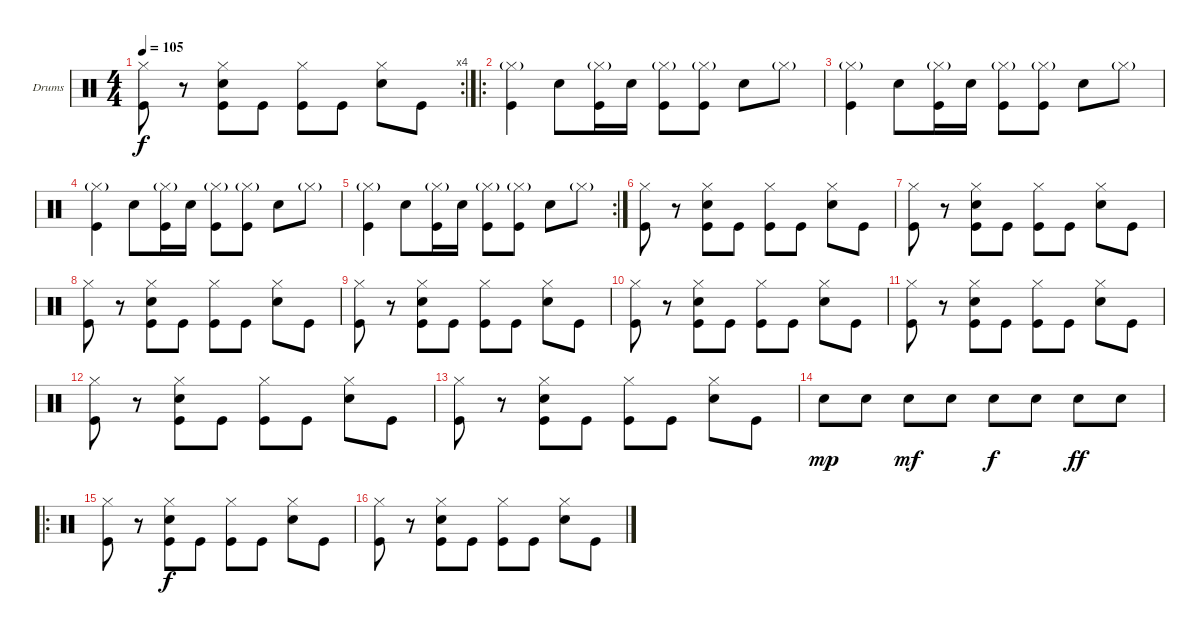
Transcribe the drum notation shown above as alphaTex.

\defaultSystemsLayout 4
\bracketExtendMode groupsimilarinstruments
\firstSystemTrackNameOrientation horizontal
\otherSystemsTrackNameOrientation horizontal
\track ("Ily" "Drums") {instrument percussion}
\staff {score}
\articulation defaults
\rc 4
\ts (4 4)
\tempo 105
\clef neutral
\ks c
("Hi-Hat (closed)" "Kick (hit)").8{dy f} r.8 ("Hi-Hat (closed)" "Kick (hit)" "Snare (hit) 2").8 "Kick (hit)".8 ("Hi-Hat (closed)" "Kick (hit)").8 "Kick (hit)".8 ("Hi-Hat (closed)" "Snare (hit) 2").8 "Kick (hit)".8 |
\ro
("Hi-Hat (closed)"{g} "Kick (hit)").4 "Snare (hit) 2".8 ("Hi-Hat (closed)"{g} "Kick (hit)").16 "Snare (hit) 2".16 ("Hi-Hat (closed)"{g} "Kick (hit)").8 ("Hi-Hat (closed)"{g} "Kick (hit)").8 "Snare (hit) 2".8 "Hi-Hat (closed)"{g}.8 |
("Hi-Hat (closed)"{g} "Kick (hit)").4 "Snare (hit) 2".8 ("Hi-Hat (closed)"{g} "Kick (hit)").16 "Snare (hit) 2".16 ("Hi-Hat (closed)"{g} "Kick (hit)").8 ("Hi-Hat (closed)"{g} "Kick (hit)").8 "Snare (hit) 2".8 "Hi-Hat (closed)"{g}.8 |
("Hi-Hat (closed)"{g} "Kick (hit)").4 "Snare (hit) 2".8 ("Hi-Hat (closed)"{g} "Kick (hit)").16 "Snare (hit) 2".16 ("Hi-Hat (closed)"{g} "Kick (hit)").8 ("Hi-Hat (closed)"{g} "Kick (hit)").8 "Snare (hit) 2".8 "Hi-Hat (closed)"{g}.8 |
\rc 2
("Hi-Hat (closed)"{g} "Kick (hit)").4 "Snare (hit) 2".8 ("Hi-Hat (closed)"{g} "Kick (hit)").16 "Snare (hit) 2".16 ("Hi-Hat (closed)"{g} "Kick (hit)").8 ("Hi-Hat (closed)"{g} "Kick (hit)").8 "Snare (hit) 2".8 "Hi-Hat (closed)"{g}.8 |
("Hi-Hat (closed)" "Kick (hit)").8 r.8 ("Hi-Hat (closed)" "Kick (hit)" "Snare (hit) 2").8 "Kick (hit)".8 ("Hi-Hat (closed)" "Kick (hit)").8 "Kick (hit)".8 ("Hi-Hat (closed)" "Snare (hit) 2").8 "Kick (hit)".8 |
("Hi-Hat (closed)" "Kick (hit)").8 r.8 ("Hi-Hat (closed)" "Kick (hit)" "Snare (hit) 2").8 "Kick (hit)".8 ("Hi-Hat (closed)" "Kick (hit)").8 "Kick (hit)".8 ("Hi-Hat (closed)" "Snare (hit) 2").8 "Kick (hit)".8 |
("Hi-Hat (closed)" "Kick (hit)").8 r.8 ("Hi-Hat (closed)" "Kick (hit)" "Snare (hit) 2").8 "Kick (hit)".8 ("Hi-Hat (closed)" "Kick (hit)").8 "Kick (hit)".8 ("Hi-Hat (closed)" "Snare (hit) 2").8 "Kick (hit)".8 |
("Hi-Hat (closed)" "Kick (hit)").8 r.8 ("Hi-Hat (closed)" "Kick (hit)" "Snare (hit) 2").8 "Kick (hit)".8 ("Hi-Hat (closed)" "Kick (hit)").8 "Kick (hit)".8 ("Hi-Hat (closed)" "Snare (hit) 2").8 "Kick (hit)".8 |
("Hi-Hat (closed)" "Kick (hit)").8 r.8 ("Hi-Hat (closed)" "Kick (hit)" "Snare (hit) 2").8 "Kick (hit)".8 ("Hi-Hat (closed)" "Kick (hit)").8 "Kick (hit)".8 ("Hi-Hat (closed)" "Snare (hit) 2").8 "Kick (hit)".8 |
("Hi-Hat (closed)" "Kick (hit)").8 r.8 ("Hi-Hat (closed)" "Kick (hit)" "Snare (hit) 2").8 "Kick (hit)".8 ("Hi-Hat (closed)" "Kick (hit)").8 "Kick (hit)".8 ("Hi-Hat (closed)" "Snare (hit) 2").8 "Kick (hit)".8 |
("Hi-Hat (closed)" "Kick (hit)").8 r.8 ("Hi-Hat (closed)" "Kick (hit)" "Snare (hit) 2").8 "Kick (hit)".8 ("Hi-Hat (closed)" "Kick (hit)").8 "Kick (hit)".8 ("Hi-Hat (closed)" "Snare (hit) 2").8 "Kick (hit)".8 |
("Hi-Hat (closed)" "Kick (hit)").8 r.8 ("Hi-Hat (closed)" "Kick (hit)" "Snare (hit) 2").8 "Kick (hit)".8 ("Hi-Hat (closed)" "Kick (hit)").8 "Kick (hit)".8 ("Hi-Hat (closed)" "Snare (hit) 2").8 "Kick (hit)".8 |
"Snare (hit) 2".8{dy mp} "Snare (hit) 2".8 "Snare (hit) 2".8{dy mf} "Snare (hit) 2".8 "Snare (hit) 2".8{dy f} "Snare (hit) 2".8 "Snare (hit) 2".8{dy ff} "Snare (hit) 2".8 |
\ro
("Hi-Hat (closed)" "Kick (hit)").8 r.8 ("Hi-Hat (closed)" "Kick (hit)" "Snare (hit) 2").8{dy f} "Kick (hit)".8 ("Hi-Hat (closed)" "Kick (hit)").8 "Kick (hit)".8 ("Hi-Hat (closed)" "Snare (hit) 2").8 "Kick (hit)".8 |
("Hi-Hat (closed)" "Kick (hit)").8 r.8 ("Hi-Hat (closed)" "Kick (hit)" "Snare (hit) 2").8 "Kick (hit)".8 ("Hi-Hat (closed)" "Kick (hit)").8 "Kick (hit)".8 ("Hi-Hat (closed)" "Snare (hit) 2").8 "Kick (hit)".8
